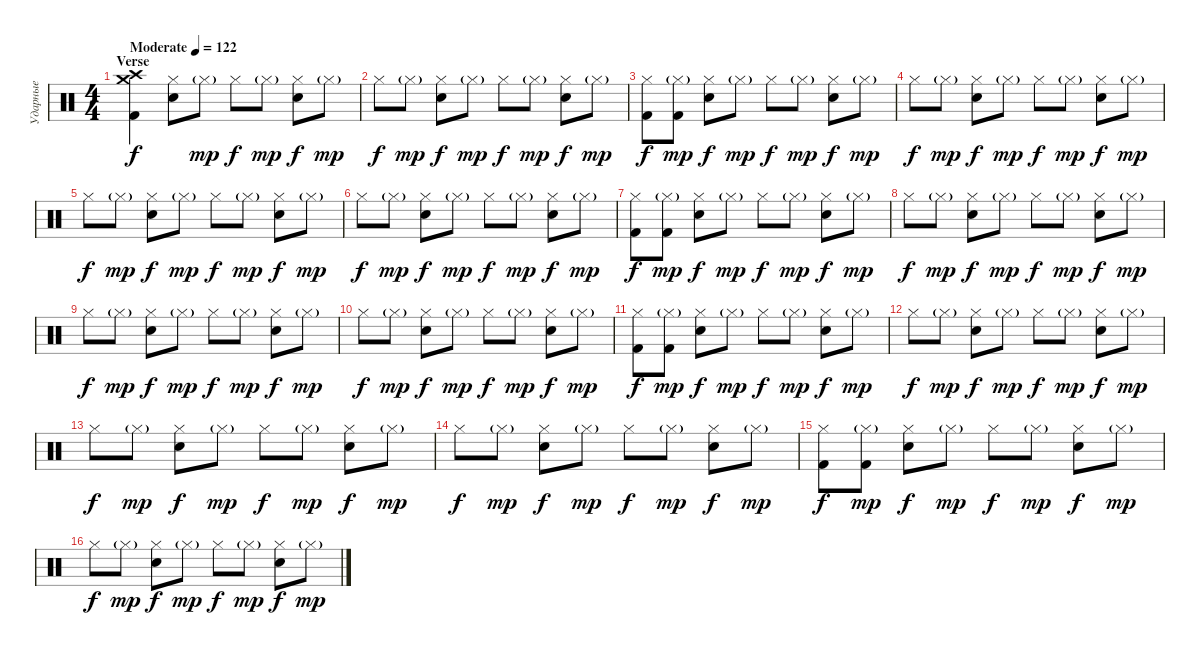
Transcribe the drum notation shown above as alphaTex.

\track ("Ударные" "Ударные") {instrument percussion}
\staff {score}
\articulation defaults
\ts (4 4)
\section ("" "Verse")
\tempo (122 "Moderate")
\clef neutral
\ks c
("Crash medium (hit)" "Crash high (hit)" "Kick (hit) 2").4{dy f} ("Hi-Hat (closed)" "Electric Snare (hit)").8 "Hi-Hat (closed)"{g}.8{dy mp} "Hi-Hat (closed)".8{dy f} "Hi-Hat (closed)"{g}.8{dy mp} ("Hi-Hat (closed)" "Electric Snare (hit)").8{dy f} "Hi-Hat (closed)"{g}.8{dy mp} |
"Hi-Hat (closed)".8{dy f} "Hi-Hat (closed)"{g}.8{dy mp} ("Hi-Hat (closed)" "Electric Snare (hit)").8{dy f} "Hi-Hat (closed)"{g}.8{dy mp} "Hi-Hat (closed)".8{dy f} "Hi-Hat (closed)"{g}.8{dy mp} ("Hi-Hat (closed)" "Electric Snare (hit)").8{dy f} "Hi-Hat (closed)"{g}.8{dy mp} |
("Hi-Hat (closed)" "Kick (hit) 2").8{dy f} ("Hi-Hat (closed)"{g} "Kick (hit) 2").8{dy mp} ("Hi-Hat (closed)" "Electric Snare (hit)").8{dy f} "Hi-Hat (closed)"{g}.8{dy mp} "Hi-Hat (closed)".8{dy f} "Hi-Hat (closed)"{g}.8{dy mp} ("Hi-Hat (closed)" "Electric Snare (hit)").8{dy f} "Hi-Hat (closed)"{g}.8{dy mp} |
"Hi-Hat (closed)".8{dy f} "Hi-Hat (closed)"{g}.8{dy mp} ("Hi-Hat (closed)" "Electric Snare (hit)").8{dy f} "Hi-Hat (closed)"{g}.8{dy mp} "Hi-Hat (closed)".8{dy f} "Hi-Hat (closed)"{g}.8{dy mp} ("Hi-Hat (closed)" "Electric Snare (hit)").8{dy f} "Hi-Hat (closed)"{g}.8{dy mp} |
"Hi-Hat (closed)".8{dy f} "Hi-Hat (closed)"{g}.8{dy mp} ("Hi-Hat (closed)" "Electric Snare (hit)").8{dy f} "Hi-Hat (closed)"{g}.8{dy mp} "Hi-Hat (closed)".8{dy f} "Hi-Hat (closed)"{g}.8{dy mp} ("Hi-Hat (closed)" "Electric Snare (hit)").8{dy f} "Hi-Hat (closed)"{g}.8{dy mp} |
"Hi-Hat (closed)".8{dy f} "Hi-Hat (closed)"{g}.8{dy mp} ("Hi-Hat (closed)" "Electric Snare (hit)").8{dy f} "Hi-Hat (closed)"{g}.8{dy mp} "Hi-Hat (closed)".8{dy f} "Hi-Hat (closed)"{g}.8{dy mp} ("Hi-Hat (closed)" "Electric Snare (hit)").8{dy f} "Hi-Hat (closed)"{g}.8{dy mp} |
("Hi-Hat (closed)" "Kick (hit) 2").8{dy f} ("Hi-Hat (closed)"{g} "Kick (hit) 2").8{dy mp} ("Hi-Hat (closed)" "Electric Snare (hit)").8{dy f} "Hi-Hat (closed)"{g}.8{dy mp} "Hi-Hat (closed)".8{dy f} "Hi-Hat (closed)"{g}.8{dy mp} ("Hi-Hat (closed)" "Electric Snare (hit)").8{dy f} "Hi-Hat (closed)"{g}.8{dy mp} |
"Hi-Hat (closed)".8{dy f} "Hi-Hat (closed)"{g}.8{dy mp} ("Hi-Hat (closed)" "Electric Snare (hit)").8{dy f} "Hi-Hat (closed)"{g}.8{dy mp} "Hi-Hat (closed)".8{dy f} "Hi-Hat (closed)"{g}.8{dy mp} ("Hi-Hat (closed)" "Electric Snare (hit)").8{dy f} "Hi-Hat (closed)"{g}.8{dy mp} |
"Hi-Hat (closed)".8{dy f} "Hi-Hat (closed)"{g}.8{dy mp} ("Hi-Hat (closed)" "Electric Snare (hit)").8{dy f} "Hi-Hat (closed)"{g}.8{dy mp} "Hi-Hat (closed)".8{dy f} "Hi-Hat (closed)"{g}.8{dy mp} ("Hi-Hat (closed)" "Electric Snare (hit)").8{dy f} "Hi-Hat (closed)"{g}.8{dy mp} |
"Hi-Hat (closed)".8{dy f} "Hi-Hat (closed)"{g}.8{dy mp} ("Hi-Hat (closed)" "Electric Snare (hit)").8{dy f} "Hi-Hat (closed)"{g}.8{dy mp} "Hi-Hat (closed)".8{dy f} "Hi-Hat (closed)"{g}.8{dy mp} ("Hi-Hat (closed)" "Electric Snare (hit)").8{dy f} "Hi-Hat (closed)"{g}.8{dy mp} |
("Hi-Hat (closed)" "Kick (hit) 2").8{dy f} ("Hi-Hat (closed)"{g} "Kick (hit) 2").8{dy mp} ("Hi-Hat (closed)" "Electric Snare (hit)").8{dy f} "Hi-Hat (closed)"{g}.8{dy mp} "Hi-Hat (closed)".8{dy f} "Hi-Hat (closed)"{g}.8{dy mp} ("Hi-Hat (closed)" "Electric Snare (hit)").8{dy f} "Hi-Hat (closed)"{g}.8{dy mp} |
"Hi-Hat (closed)".8{dy f} "Hi-Hat (closed)"{g}.8{dy mp} ("Hi-Hat (closed)" "Electric Snare (hit)").8{dy f} "Hi-Hat (closed)"{g}.8{dy mp} "Hi-Hat (closed)".8{dy f} "Hi-Hat (closed)"{g}.8{dy mp} ("Hi-Hat (closed)" "Electric Snare (hit)").8{dy f} "Hi-Hat (closed)"{g}.8{dy mp} |
"Hi-Hat (closed)".8{dy f} "Hi-Hat (closed)"{g}.8{dy mp} ("Hi-Hat (closed)" "Electric Snare (hit)").8{dy f} "Hi-Hat (closed)"{g}.8{dy mp} "Hi-Hat (closed)".8{dy f} "Hi-Hat (closed)"{g}.8{dy mp} ("Hi-Hat (closed)" "Electric Snare (hit)").8{dy f} "Hi-Hat (closed)"{g}.8{dy mp} |
"Hi-Hat (closed)".8{dy f} "Hi-Hat (closed)"{g}.8{dy mp} ("Hi-Hat (closed)" "Electric Snare (hit)").8{dy f} "Hi-Hat (closed)"{g}.8{dy mp} "Hi-Hat (closed)".8{dy f} "Hi-Hat (closed)"{g}.8{dy mp} ("Hi-Hat (closed)" "Electric Snare (hit)").8{dy f} "Hi-Hat (closed)"{g}.8{dy mp} |
("Hi-Hat (closed)" "Kick (hit) 2").8{dy f} ("Hi-Hat (closed)"{g} "Kick (hit) 2").8{dy mp} ("Hi-Hat (closed)" "Electric Snare (hit)").8{dy f} "Hi-Hat (closed)"{g}.8{dy mp} "Hi-Hat (closed)".8{dy f} "Hi-Hat (closed)"{g}.8{dy mp} ("Hi-Hat (closed)" "Electric Snare (hit)").8{dy f} "Hi-Hat (closed)"{g}.8{dy mp} |
"Hi-Hat (closed)".8{dy f} "Hi-Hat (closed)"{g}.8{dy mp} ("Hi-Hat (closed)" "Electric Snare (hit)").8{dy f} "Hi-Hat (closed)"{g}.8{dy mp} "Hi-Hat (closed)".8{dy f} "Hi-Hat (closed)"{g}.8{dy mp} ("Hi-Hat (closed)" "Electric Snare (hit)").8{dy f} "Hi-Hat (closed)"{g}.8{dy mp}
